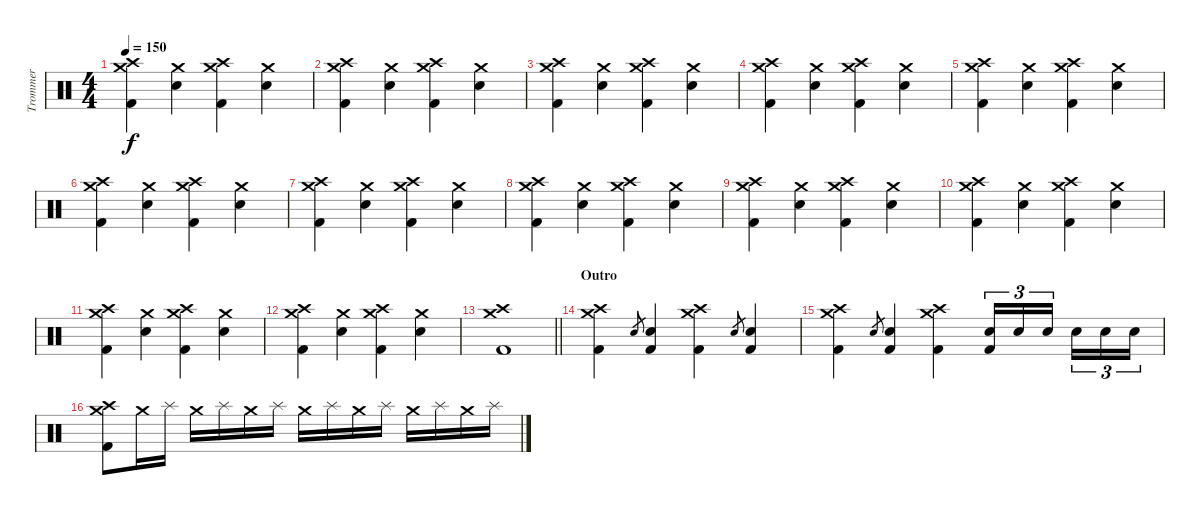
\track ("Trommer" "Trommer") {instrument percussion}
\staff {score}
\articulation defaults
\ts (4 4)
\tempo 150
\clef neutral
\ks c
("Crash medium (hit)" "Crash high (hit)" "Kick (hit) 2").4{dy f} ("Crash medium (hit)" "Snare (hit) 2").4 ("Crash medium (hit)" "Crash high (hit)" "Kick (hit) 2").4 ("Crash medium (hit)" "Snare (hit) 2").4 |
("Crash medium (hit)" "Crash high (hit)" "Kick (hit) 2").4 ("Crash medium (hit)" "Snare (hit) 2").4 ("Crash medium (hit)" "Crash high (hit)" "Kick (hit) 2").4 ("Crash medium (hit)" "Snare (hit) 2").4 |
("Crash medium (hit)" "Crash high (hit)" "Kick (hit) 2").4 ("Crash medium (hit)" "Snare (hit) 2").4 ("Crash medium (hit)" "Crash high (hit)" "Kick (hit) 2").4 ("Crash medium (hit)" "Snare (hit) 2").4 |
("Crash medium (hit)" "Crash high (hit)" "Kick (hit) 2").4 ("Crash medium (hit)" "Snare (hit) 2").4 ("Crash medium (hit)" "Crash high (hit)" "Kick (hit) 2").4 ("Crash medium (hit)" "Snare (hit) 2").4 |
("Crash medium (hit)" "Crash high (hit)" "Kick (hit) 2").4 ("Crash medium (hit)" "Snare (hit) 2").4 ("Crash medium (hit)" "Crash high (hit)" "Kick (hit) 2").4 ("Crash medium (hit)" "Snare (hit) 2").4 |
("Crash medium (hit)" "Crash high (hit)" "Kick (hit) 2").4 ("Crash medium (hit)" "Snare (hit) 2").4 ("Crash medium (hit)" "Crash high (hit)" "Kick (hit) 2").4 ("Crash medium (hit)" "Snare (hit) 2").4 |
("Crash medium (hit)" "Crash high (hit)" "Kick (hit) 2").4 ("Crash medium (hit)" "Snare (hit) 2").4 ("Crash medium (hit)" "Crash high (hit)" "Kick (hit) 2").4 ("Crash medium (hit)" "Snare (hit) 2").4 |
("Crash medium (hit)" "Crash high (hit)" "Kick (hit) 2").4 ("Crash medium (hit)" "Snare (hit) 2").4 ("Crash medium (hit)" "Crash high (hit)" "Kick (hit) 2").4 ("Crash medium (hit)" "Snare (hit) 2").4 |
("Crash medium (hit)" "Crash high (hit)" "Kick (hit) 2").4 ("Crash medium (hit)" "Snare (hit) 2").4 ("Crash medium (hit)" "Crash high (hit)" "Kick (hit) 2").4 ("Crash medium (hit)" "Snare (hit) 2").4 |
("Crash medium (hit)" "Crash high (hit)" "Kick (hit) 2").4 ("Crash medium (hit)" "Snare (hit) 2").4 ("Crash medium (hit)" "Crash high (hit)" "Kick (hit) 2").4 ("Crash medium (hit)" "Snare (hit) 2").4 |
("Crash medium (hit)" "Crash high (hit)" "Kick (hit) 2").4 ("Crash medium (hit)" "Snare (hit) 2").4 ("Crash medium (hit)" "Crash high (hit)" "Kick (hit) 2").4 ("Crash medium (hit)" "Snare (hit) 2").4 |
("Crash medium (hit)" "Crash high (hit)" "Kick (hit) 2").4 ("Crash medium (hit)" "Snare (hit) 2").4 ("Crash medium (hit)" "Crash high (hit)" "Kick (hit) 2").4 ("Crash medium (hit)" "Snare (hit) 2").4 |
\barLineRight lightlight
("Crash medium (hit)" "Crash high (hit)" "Kick (hit) 2").1 |
\section ("" "Outro")
("Crash medium (hit)" "Crash high (hit)" "Kick (hit) 2").4 "Snare (hit) 2".8{gr} ("Snare (hit) 2" "Kick (hit) 2").4 ("Crash medium (hit)" "Crash high (hit)" "Kick (hit) 2").4 "Snare (hit) 2".8{gr} ("Snare (hit) 2" "Kick (hit) 2").4 |
("Crash medium (hit)" "Crash high (hit)" "Kick (hit) 2").4 "Snare (hit) 2".8{gr} ("Snare (hit) 2" "Kick (hit) 2").4 ("Crash medium (hit)" "Crash high (hit)" "Kick (hit) 2").4 ("Snare (hit) 2" "Kick (hit) 2").16{tu (3 2)} "Snare (hit) 2".16{tu (3 2)} "Snare (hit) 2".16{tu (3 2) beam splitsecondary} "Snare (hit) 2".16{tu (3 2)} "Snare (hit) 2".16{tu (3 2)} "Snare (hit) 2".16{tu (3 2)} |
("Crash medium (hit)" "Crash high (hit)" "Kick (hit) 2").8 "Crash medium (hit)".16 "Splash (hit)".16 "Crash medium (hit)".16 "Splash (hit)".16 "Crash medium (hit)".16 "Splash (hit)".16 "Crash medium (hit)".16 "Splash (hit)".16 "Crash medium (hit)".16 "Splash (hit)".16 "Crash medium (hit)".16 "Splash (hit)".16 "Crash medium (hit)".16 "Splash (hit)".16
